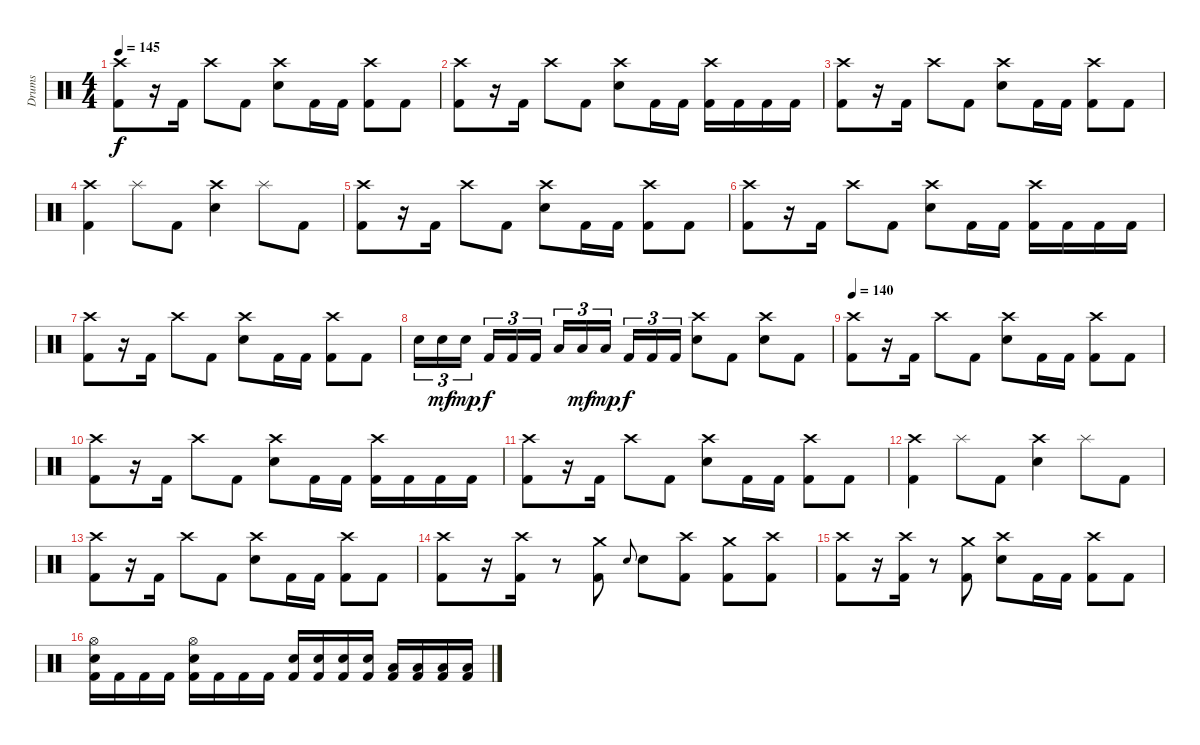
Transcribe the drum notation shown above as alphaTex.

\track ("Drums" "Drums") {instrument percussion}
\staff {score}
\articulation defaults
\ts (4 4)
\tempo 145
\clef neutral
\ks c
("Crash high (hit)" "Kick (hit) 2").8{dy f} r.16 "Kick (hit) 2".16 "Crash high (hit)".8 "Kick (hit) 2".8 ("Crash high (hit)" "Electric Snare (hit)").8 "Kick (hit) 2".16 "Kick (hit) 2".16 ("Crash high (hit)" "Kick (hit) 2").8 "Kick (hit) 2".8 |
("Crash high (hit)" "Kick (hit) 2").8 r.16 "Kick (hit) 2".16 "Crash high (hit)".8 "Kick (hit) 2".8 ("Crash high (hit)" "Electric Snare (hit)").8 "Kick (hit) 2".16 "Kick (hit) 2".16 ("Crash high (hit)" "Kick (hit) 2").16 "Kick (hit) 2".16 "Kick (hit) 2".16 "Kick (hit) 2".16 |
("Crash high (hit)" "Kick (hit) 2").8 r.16 "Kick (hit) 2".16 "Crash high (hit)".8 "Kick (hit) 2".8 ("Crash high (hit)" "Electric Snare (hit)").8 "Kick (hit) 2".16 "Kick (hit) 2".16 ("Crash high (hit)" "Kick (hit) 2").8 "Kick (hit) 2".8 |
("Crash high (hit)" "Kick (hit) 2").4 "Splash (hit)".8 "Kick (hit) 2".8 ("Crash high (hit)" "Electric Snare (hit)").4 "Splash (hit)".8 "Kick (hit) 2".8 |
("Crash high (hit)" "Kick (hit) 2").8 r.16 "Kick (hit) 2".16 "Crash high (hit)".8 "Kick (hit) 2".8 ("Crash high (hit)" "Electric Snare (hit)").8 "Kick (hit) 2".16 "Kick (hit) 2".16 ("Crash high (hit)" "Kick (hit) 2").8 "Kick (hit) 2".8 |
("Crash high (hit)" "Kick (hit) 2").8 r.16 "Kick (hit) 2".16 "Crash high (hit)".8 "Kick (hit) 2".8 ("Crash high (hit)" "Electric Snare (hit)").8 "Kick (hit) 2".16 "Kick (hit) 2".16 ("Crash high (hit)" "Kick (hit) 2").16 "Kick (hit) 2".16 "Kick (hit) 2".16 "Kick (hit) 2".16 |
("Crash high (hit)" "Kick (hit) 2").8 r.16 "Kick (hit) 2".16 "Crash high (hit)".8 "Kick (hit) 2".8 ("Crash high (hit)" "Electric Snare (hit)").8 "Kick (hit) 2".16 "Kick (hit) 2".16 ("Crash high (hit)" "Kick (hit) 2").8 "Kick (hit) 2".8 |
"Electric Snare (hit)".16{tu (3 2)} "Electric Snare (hit)".16{tu (3 2) dy mf} "Electric Snare (hit)".16{tu (3 2) dy mp beam splitsecondary} "Kick (hit) 2".16{tu (3 2) dy f} "Kick (hit) 2".16{tu (3 2)} "Kick (hit) 2".16{tu (3 2)} "Low Tom (hit)".16{tu (3 2)} "Low Tom (hit)".16{tu (3 2) dy mf} "Low Tom (hit)".16{tu (3 2) dy mp beam splitsecondary} "Kick (hit) 2".16{tu (3 2) dy f} "Kick (hit) 2".16{tu (3 2)} "Kick (hit) 2".16{tu (3 2)} ("Crash high (hit)" "Electric Snare (hit)").8 "Kick (hit) 2".8 ("Crash high (hit)" "Electric Snare (hit)").8 "Kick (hit) 2".8 |
\tempo 140
("Crash high (hit)" "Kick (hit) 2").8 r.16 "Kick (hit) 2".16 "Crash high (hit)".8 "Kick (hit) 2".8 ("Crash high (hit)" "Electric Snare (hit)").8 "Kick (hit) 2".16 "Kick (hit) 2".16 ("Crash high (hit)" "Kick (hit) 2").8 "Kick (hit) 2".8 |
("Crash high (hit)" "Kick (hit) 2").8 r.16 "Kick (hit) 2".16 "Crash high (hit)".8 "Kick (hit) 2".8 ("Crash high (hit)" "Electric Snare (hit)").8 "Kick (hit) 2".16 "Kick (hit) 2".16 ("Crash high (hit)" "Kick (hit) 2").16 "Kick (hit) 2".16 "Kick (hit) 2".16 "Kick (hit) 2".16 |
("Crash high (hit)" "Kick (hit) 2").8 r.16 "Kick (hit) 2".16 "Crash high (hit)".8 "Kick (hit) 2".8 ("Crash high (hit)" "Electric Snare (hit)").8 "Kick (hit) 2".16 "Kick (hit) 2".16 ("Crash high (hit)" "Kick (hit) 2").8 "Kick (hit) 2".8 |
("Crash high (hit)" "Kick (hit) 2").4 "Splash (hit)".8 "Kick (hit) 2".8 ("Crash high (hit)" "Electric Snare (hit)").4 "Splash (hit)".8 "Kick (hit) 2".8 |
("Crash high (hit)" "Kick (hit) 2").8 r.16 "Kick (hit) 2".16 "Crash high (hit)".8 "Kick (hit) 2".8 ("Crash high (hit)" "Electric Snare (hit)").8 "Kick (hit) 2".16 "Kick (hit) 2".16 ("Crash high (hit)" "Kick (hit) 2").8 "Kick (hit) 2".8 |
("Crash high (hit)" "Kick (hit) 2").8 r.16 ("Crash high (hit)" "Kick (hit) 2").16 r.8 ("Crash medium (hit)" "Kick (hit) 2").8 "Electric Snare (hit)".8{gr onbeat} "Electric Snare (hit)".8 ("Crash high (hit)" "Kick (hit) 2").8 ("Crash medium (hit)" "Kick (hit) 2").8 ("Crash high (hit)" "Kick (hit) 2").8 |
("Crash high (hit)" "Kick (hit) 2").8 r.16 ("Crash high (hit)" "Kick (hit) 2").16 r.8 ("Crash medium (hit)" "Kick (hit) 2").8 ("Crash high (hit)" "Electric Snare (hit)").8 "Kick (hit) 2".16 "Kick (hit) 2".16 ("Crash high (hit)" "Kick (hit) 2").8 "Kick (hit) 2".8 |
("Hi-Hat (open)" "Electric Snare (hit)" "Kick (hit) 2").16 "Kick (hit) 2".16 "Kick (hit) 2".16 "Kick (hit) 2".16 ("Hi-Hat (open)" "Electric Snare (hit)" "Kick (hit) 2").16 "Kick (hit) 2".16 "Kick (hit) 2".16 "Kick (hit) 2".16 ("Electric Snare (hit)" "Kick (hit) 2").16 ("Electric Snare (hit)" "Kick (hit) 2").16 ("Electric Snare (hit)" "Kick (hit) 2").16 ("Electric Snare (hit)" "Kick (hit) 2").16 ("Low Tom (hit)" "Kick (hit) 2").16 ("Low Tom (hit)" "Kick (hit) 2").16 ("Low Tom (hit)" "Kick (hit) 2").16 ("Low Tom (hit)" "Kick (hit) 2").16
